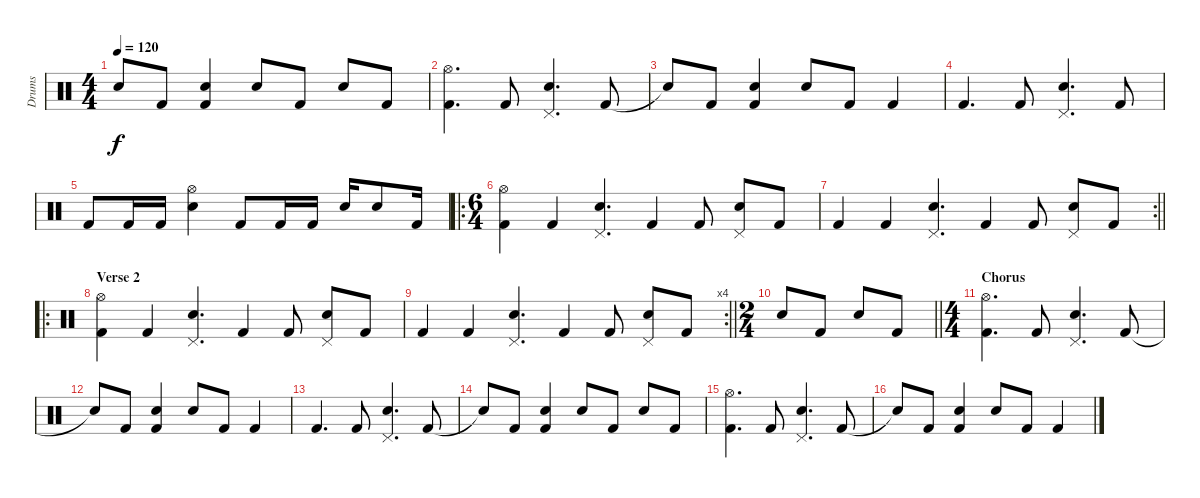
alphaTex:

\track ("Drums" "Drums") {instrument percussion}
\staff {score}
\articulation defaults
\ts (4 4)
\tempo 120
\clef neutral
\ks c "Snare (hit)"{t}.8{dy f} "Kick (hit) 2".8
("Snare (hit) 2" "Kick (hit) 2").4 "Snare (hit) 2".8 "Kick (hit) 2".8 "Snare (hit) 2".8 "Kick (hit) 2".8 |
("Hi-Hat (open)" "Kick (hit) 2").4{d} "Kick (hit) 2".8 ("Pedal Hi-Hat (hit)" "Snare (hit) 2").4{d} "Kick (hit) 2".8 |
"Snare (hit)"{t}.8 "Kick (hit) 2".8 ("Snare (hit) 2" "Kick (hit) 2").4 "Snare (hit) 2".8 "Kick (hit) 2".8 "Kick (hit) 2".4 |
"Kick (hit) 2".4{d} "Kick (hit) 2".8 ("Pedal Hi-Hat (hit)" "Snare (hit) 2").4{d} "Kick (hit) 2".8 |
"Kick (hit) 2".8 "Kick (hit) 2".16 "Kick (hit) 2".16 ("Hi-Hat (open)" "Snare (hit) 2").4 "Kick (hit) 2".8 "Kick (hit) 2".16 "Kick (hit) 2".16 "Snare (hit) 2".16 "Snare (hit) 2".8 "Kick (hit) 2".16 |
\ro
\ts (6 4)
("Hi-Hat (open)" "Kick (hit) 2").4 "Kick (hit) 2".4 ("Pedal Hi-Hat (hit)" "Snare (hit) 2").4{d} "Kick (hit) 2".4 "Kick (hit) 2".8 ("Pedal Hi-Hat (hit)" "Snare (hit) 2").8 "Kick (hit) 2".8 |
\rc 2
\barLineRight lightlight "Kick (hit) 2".4 "Kick (hit) 2".4
("Pedal Hi-Hat (hit)" "Snare (hit) 2").4{d} "Kick (hit) 2".4 "Kick (hit) 2".8 ("Pedal Hi-Hat (hit)" "Snare (hit) 2").8 "Kick (hit) 2".8 |
\ro
\section ("" "Verse 2")
("Hi-Hat (open)" "Kick (hit) 2").4 "Kick (hit) 2".4 ("Pedal Hi-Hat (hit)" "Snare (hit) 2").4{d} "Kick (hit) 2".4 "Kick (hit) 2".8 ("Pedal Hi-Hat (hit)" "Snare (hit) 2").8 "Kick (hit) 2".8 |
\rc 4
\barLineRight lightlight "Kick (hit) 2".4 "Kick (hit) 2".4
("Pedal Hi-Hat (hit)" "Snare (hit) 2").4{d} "Kick (hit) 2".4 "Kick (hit) 2".8 ("Pedal Hi-Hat (hit)" "Snare (hit) 2").8 "Kick (hit) 2".8 |
\ts (2 4)
\barLineRight lightlight "Snare (hit) 2".8 "Kick (hit) 2".8 "Snare (hit) 2".8 "Kick (hit) 2".8
|
\ts (4 4)
\section ("" "Chorus")
("Hi-Hat (open)" "Kick (hit) 2").4{d} "Kick (hit) 2".8 ("Pedal Hi-Hat (hit)" "Snare (hit) 2").4{d} "Kick (hit) 2".8 |
"Snare (hit)"{t}.8 "Kick (hit) 2".8 ("Snare (hit) 2" "Kick (hit) 2").4 "Snare (hit) 2".8 "Kick (hit) 2".8 "Kick (hit) 2".4 |
"Kick (hit) 2".4{d} "Kick (hit) 2".8 ("Pedal Hi-Hat (hit)" "Snare (hit) 2").4{d} "Kick (hit) 2".8 |
"Snare (hit)"{t}.8 "Kick (hit) 2".8 ("Snare (hit) 2" "Kick (hit) 2").4 "Snare (hit) 2".8 "Kick (hit) 2".8 "Snare (hit) 2".8 "Kick (hit) 2".8 |
("Hi-Hat (open)" "Kick (hit) 2").4{d} "Kick (hit) 2".8 ("Pedal Hi-Hat (hit)" "Snare (hit) 2").4{d} "Kick (hit) 2".8 |
"Snare (hit)"{t}.8 "Kick (hit) 2".8 ("Snare (hit) 2" "Kick (hit) 2").4 "Snare (hit) 2".8 "Kick (hit) 2".8 "Kick (hit) 2".4
